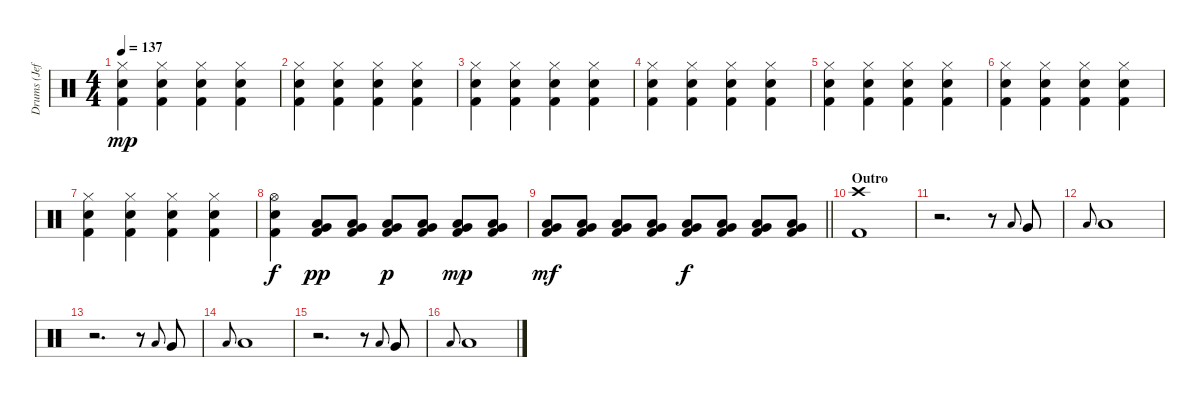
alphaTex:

\track ("Drums (Jeff)" "Drums (Jef") {instrument percussion}
\staff {score}
\articulation defaults
\ts (4 4)
\tempo 137
\clef neutral
\ks c
("Hi-Hat (closed)" "Electric Snare (hit)" "Kick (hit) 2").4{dy mp} ("Hi-Hat (closed)" "Electric Snare (hit)" "Kick (hit) 2").4 ("Hi-Hat (closed)" "Electric Snare (hit)" "Kick (hit) 2").4 ("Hi-Hat (closed)" "Electric Snare (hit)" "Kick (hit) 2").4 |
("Hi-Hat (closed)" "Electric Snare (hit)" "Kick (hit) 2").4 ("Hi-Hat (closed)" "Electric Snare (hit)" "Kick (hit) 2").4 ("Hi-Hat (closed)" "Electric Snare (hit)" "Kick (hit) 2").4 ("Hi-Hat (closed)" "Electric Snare (hit)" "Kick (hit) 2").4 |
("Hi-Hat (closed)" "Electric Snare (hit)" "Kick (hit) 2").4 ("Hi-Hat (closed)" "Electric Snare (hit)" "Kick (hit) 2").4 ("Hi-Hat (closed)" "Electric Snare (hit)" "Kick (hit) 2").4 ("Hi-Hat (closed)" "Electric Snare (hit)" "Kick (hit) 2").4 |
("Hi-Hat (closed)" "Electric Snare (hit)" "Kick (hit) 2").4 ("Hi-Hat (closed)" "Electric Snare (hit)" "Kick (hit) 2").4 ("Hi-Hat (closed)" "Electric Snare (hit)" "Kick (hit) 2").4 ("Hi-Hat (closed)" "Electric Snare (hit)" "Kick (hit) 2").4 |
("Hi-Hat (closed)" "Electric Snare (hit)" "Kick (hit) 2").4 ("Hi-Hat (closed)" "Electric Snare (hit)" "Kick (hit) 2").4 ("Hi-Hat (closed)" "Electric Snare (hit)" "Kick (hit) 2").4 ("Hi-Hat (closed)" "Electric Snare (hit)" "Kick (hit) 2").4 |
("Hi-Hat (closed)" "Electric Snare (hit)" "Kick (hit) 2").4 ("Hi-Hat (closed)" "Electric Snare (hit)" "Kick (hit) 2").4 ("Hi-Hat (closed)" "Electric Snare (hit)" "Kick (hit) 2").4 ("Hi-Hat (closed)" "Electric Snare (hit)" "Kick (hit) 2").4 |
("Hi-Hat (closed)" "Electric Snare (hit)" "Kick (hit) 2").4 ("Hi-Hat (closed)" "Electric Snare (hit)" "Kick (hit) 2").4 ("Hi-Hat (closed)" "Electric Snare (hit)" "Kick (hit) 2").4 ("Hi-Hat (closed)" "Electric Snare (hit)" "Kick (hit) 2").4 |
("Hi-Hat (open)" "Electric Snare (hit)" "Kick (hit) 2").4{dy f} ("Very Low Tom (hit)" "Low Floor Tom (hit)" "Kick (hit) 2").8{dy pp} ("Very Low Tom (hit)" "Low Floor Tom (hit)" "Kick (hit) 2").8 ("Very Low Tom (hit)" "Low Floor Tom (hit)" "Kick (hit) 2").8{dy p} ("Very Low Tom (hit)" "Low Floor Tom (hit)" "Kick (hit) 2").8 ("Very Low Tom (hit)" "Low Floor Tom (hit)" "Kick (hit) 2").8{dy mp} ("Very Low Tom (hit)" "Low Floor Tom (hit)" "Kick (hit) 2").8 |
\barLineRight lightlight
("Very Low Tom (hit)" "Low Floor Tom (hit)" "Kick (hit) 2").8{dy mf} ("Very Low Tom (hit)" "Low Floor Tom (hit)" "Kick (hit) 2").8 ("Very Low Tom (hit)" "Low Floor Tom (hit)" "Kick (hit) 2").8 ("Very Low Tom (hit)" "Low Floor Tom (hit)" "Kick (hit) 2").8 ("Very Low Tom (hit)" "Low Floor Tom (hit)" "Kick (hit) 2").8{dy f} ("Very Low Tom (hit)" "Low Floor Tom (hit)" "Kick (hit) 2").8 ("Very Low Tom (hit)" "Low Floor Tom (hit)" "Kick (hit) 2").8 ("Very Low Tom (hit)" "Low Floor Tom (hit)" "Kick (hit) 2").8 |
\section ("" "Outro")
("Crash high (hit)" "Kick (hit) 2").1 |
r.2{d} r.8 "Low Tom (hit)"{h}.8{gr onbeat} "Very Low Tom (hit)".8 |
"Low Tom (hit)"{h}.8{gr onbeat} "Low Tom (hit)".1 |
r.2{d} r.8 "Low Tom (hit)"{h}.8{gr onbeat} "Very Low Tom (hit)".8 |
"Low Tom (hit)"{h}.8{gr onbeat} "Low Tom (hit)".1 |
r.2{d} r.8 "Low Tom (hit)"{h}.8{gr onbeat} "Very Low Tom (hit)".8 |
"Low Tom (hit)"{h}.8{gr onbeat} "Low Tom (hit)".1
